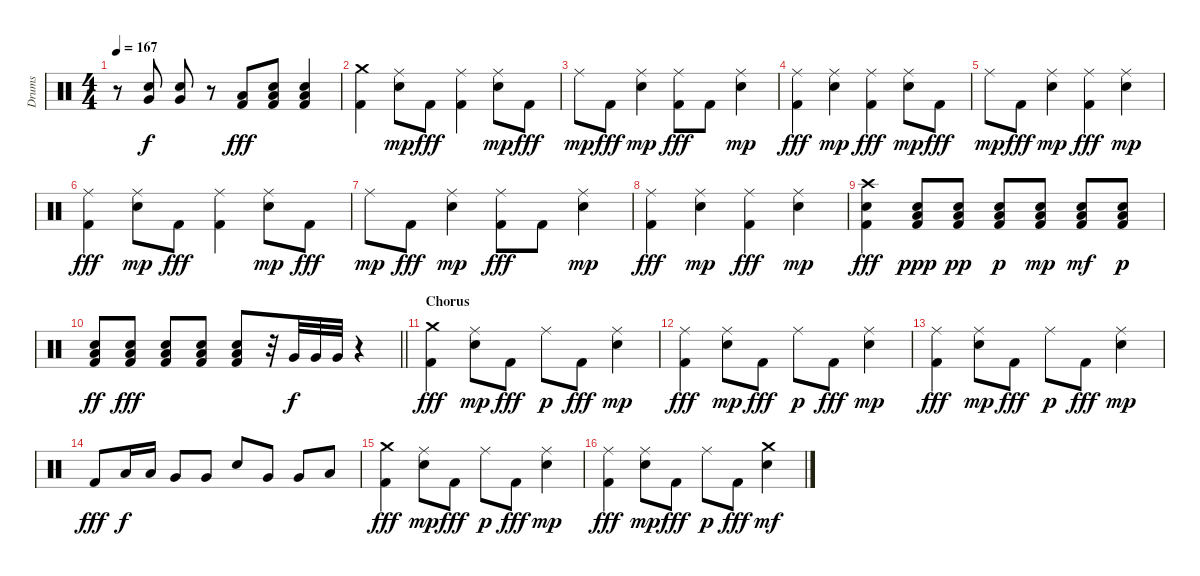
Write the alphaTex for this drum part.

\track ("Drums" "Drums") {instrument percussion}
\staff {score}
\articulation defaults
\ts (4 4)
\tempo 167
\clef neutral
\ks c
r.8{dy fff} ("Electric Snare (hit)" "Very Low Tom (hit)").8{dy f} ("Electric Snare (hit)" "Very Low Tom (hit)").8 r.8 ("Low Floor Tom (hit)" "Kick (hit) 2").8{dy fff} ("Electric Snare (hit)" "Low Floor Tom (hit)" "Kick (hit) 2").8 ("Electric Snare (hit)" "Low Floor Tom (hit)" "Kick (hit) 2").4 |
("Crash medium (hit)" "Kick (hit) 2").4 ("Ride (middle)" "Electric Snare (hit)").8{dy mp} "Kick (hit) 2".8{dy fff} ("Ride (middle)" "Kick (hit) 2").4 ("Ride (middle)" "Electric Snare (hit)").8{dy mp} "Kick (hit) 2".8{dy fff} |
"Ride (middle)".8{dy mp} "Kick (hit) 2".8{dy fff} ("Ride (middle)" "Electric Snare (hit)").4{dy mp} ("Ride (middle)" "Kick (hit) 2").8{dy fff} "Kick (hit) 2".8 ("Ride (middle)" "Electric Snare (hit)").4{dy mp} |
("Ride (middle)" "Kick (hit) 2").4{dy fff} ("Ride (middle)" "Electric Snare (hit)").4{dy mp} ("Ride (middle)" "Kick (hit) 2").4{dy fff} ("Ride (middle)" "Electric Snare (hit)").8{dy mp} "Kick (hit) 2".8{dy fff} |
"Ride (middle)".8{dy mp} "Kick (hit) 2".8{dy fff} ("Ride (middle)" "Electric Snare (hit)").4{dy mp} ("Ride (middle)" "Kick (hit) 2").4{dy fff} ("Ride (middle)" "Electric Snare (hit)").4{dy mp} |
("Ride (middle)" "Kick (hit) 2").4{dy fff} ("Ride (middle)" "Electric Snare (hit)").8{dy mp} "Kick (hit) 2".8{dy fff} ("Ride (middle)" "Kick (hit) 2").4 ("Ride (middle)" "Electric Snare (hit)").8{dy mp} "Kick (hit) 2".8{dy fff} |
"Ride (middle)".8{dy mp} "Kick (hit) 2".8{dy fff} ("Ride (middle)" "Electric Snare (hit)").4{dy mp} ("Ride (middle)" "Kick (hit) 2").8{dy fff} "Kick (hit) 2".8 ("Ride (middle)" "Electric Snare (hit)").4{dy mp} |
("Ride (middle)" "Kick (hit) 2").4{dy fff} ("Ride (middle)" "Electric Snare (hit)").4{dy mp} ("Ride (middle)" "Kick (hit) 2").4{dy fff} ("Ride (middle)" "Electric Snare (hit)").4{dy mp} |
("Crash high (hit)" "Electric Snare (hit)" "Kick (hit) 2").4{dy fff} ("Electric Snare (hit)" "Low Floor Tom (hit)" "Kick (hit) 2").8{dy ppp} ("Electric Snare (hit)" "Low Floor Tom (hit)" "Kick (hit) 2").8{dy pp} ("Electric Snare (hit)" "Low Floor Tom (hit)" "Kick (hit) 2").8{dy p} ("Electric Snare (hit)" "Low Floor Tom (hit)" "Kick (hit) 2").8{dy mp} ("Electric Snare (hit)" "Low Floor Tom (hit)" "Kick (hit) 2").8{dy mf} ("Electric Snare (hit)" "Low Floor Tom (hit)" "Kick (hit) 2").8{dy p} |
\barLineRight lightlight
("Electric Snare (hit)" "Low Floor Tom (hit)" "Kick (hit) 2").8{dy ff} ("Electric Snare (hit)" "Low Floor Tom (hit)" "Kick (hit) 2").8{dy fff} ("Electric Snare (hit)" "Low Floor Tom (hit)" "Kick (hit) 2").8 ("Electric Snare (hit)" "Low Floor Tom (hit)" "Kick (hit) 2").8 ("Electric Snare (hit)" "Low Floor Tom (hit)" "Kick (hit) 2").8 r.32 "Very Low Tom (hit)".32{dy f} "Very Low Tom (hit)".32 "Very Low Tom (hit)".32 r.4 |
\section ("" "Chorus")
("Crash medium (hit)" "Kick (hit) 2").4{dy fff} ("Ride (middle)" "Electric Snare (hit)").8{dy mp} "Kick (hit) 2".8{dy fff} "Ride (middle)".8{dy p} "Kick (hit) 2".8{dy fff} ("Ride (middle)" "Electric Snare (hit)").4{dy mp} |
("Ride (middle)" "Kick (hit) 2").4{dy fff} ("Ride (middle)" "Electric Snare (hit)").8{dy mp} "Kick (hit) 2".8{dy fff} "Ride (middle)".8{dy p} "Kick (hit) 2".8{dy fff} ("Ride (middle)" "Electric Snare (hit)").4{dy mp} |
("Ride (middle)" "Kick (hit) 2").4{dy fff} ("Ride (middle)" "Electric Snare (hit)").8{dy mp} "Kick (hit) 2".8{dy fff} "Ride (middle)".8{dy p} "Kick (hit) 2".8{dy fff} ("Ride (middle)" "Electric Snare (hit)").4{dy mp} |
"Kick (hit) 2".8{dy fff} "Low Tom (hit)".16{dy f} "Low Tom (hit)".16 "Very Low Tom (hit)".8 "Very Low Tom (hit)".8 "Electric Snare (hit)".8 "Very Low Tom (hit)".8 "Very Low Tom (hit)".8 "Low Floor Tom (hit)".8 |
("Crash medium (hit)" "Kick (hit) 2").4{dy fff} ("Ride (middle)" "Electric Snare (hit)").8{dy mp} "Kick (hit) 2".8{dy fff} "Ride (middle)".8{dy p} "Kick (hit) 2".8{dy fff} ("Ride (middle)" "Electric Snare (hit)").4{dy mp} |
("Ride (middle)" "Kick (hit) 2").4{dy fff} ("Ride (middle)" "Electric Snare (hit)").8{dy mp} "Kick (hit) 2".8{dy fff} "Ride (middle)".8{dy p} "Kick (hit) 2".8{dy fff} ("Crash medium (hit)" "Electric Snare (hit)").4{dy mf}
